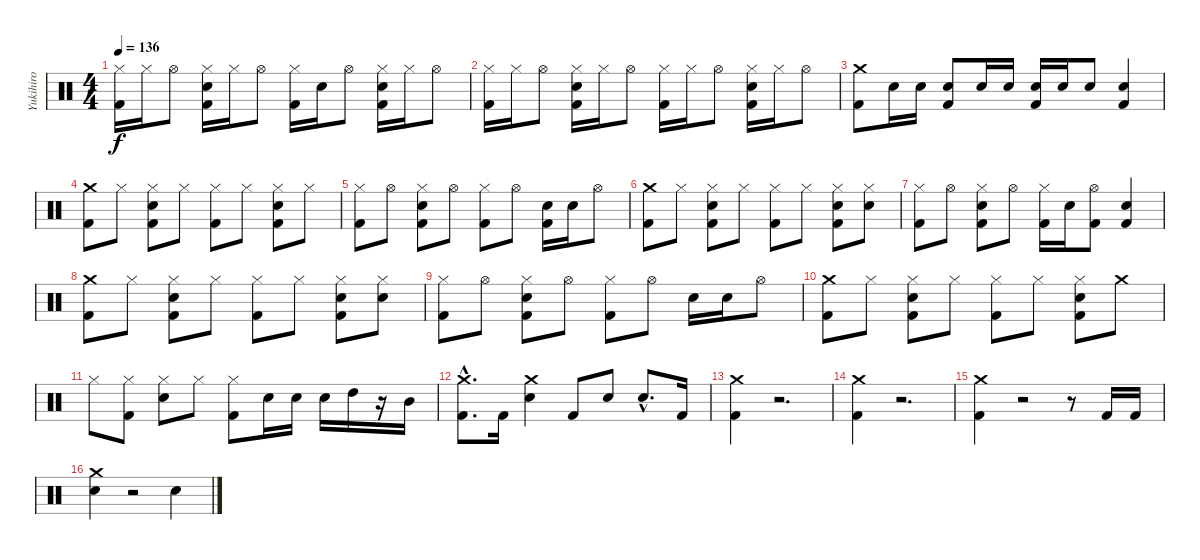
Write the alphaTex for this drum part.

\track ("Yukihiro" "Yukihiro") {instrument percussion}
\staff {score}
\articulation defaults
\ts (4 4)
\tempo 136
\clef neutral
\ks c
("Hi-Hat (closed)" "Kick (hit) 2").16{dy f} "Hi-Hat (closed)".16 "Hi-Hat (open)".8 ("Hi-Hat (closed)" "Snare (hit) 2" "Kick (hit) 2").16 "Hi-Hat (closed)".16 "Hi-Hat (open)".8 ("Hi-Hat (closed)" "Kick (hit) 2").16 "Snare (hit) 2".16 "Hi-Hat (open)".8 ("Hi-Hat (closed)" "Snare (hit) 2" "Kick (hit) 2").16 "Hi-Hat (closed)".16 "Hi-Hat (open)".8 |
("Hi-Hat (closed)" "Kick (hit) 2").16 "Hi-Hat (closed)".16 "Hi-Hat (open)".8 ("Hi-Hat (closed)" "Snare (hit) 2" "Kick (hit) 2").16 "Hi-Hat (closed)".16 "Hi-Hat (open)".8 ("Hi-Hat (closed)" "Kick (hit) 2").16 "Hi-Hat (closed)".16 "Hi-Hat (open)".8 ("Hi-Hat (closed)" "Snare (hit) 2" "Kick (hit) 2").16 "Hi-Hat (closed)".16 "Hi-Hat (open)".8 |
("Crash medium (hit)" "Kick (hit) 2").8 "Snare (hit) 2".16 "Snare (hit) 2".16 ("Snare (hit) 2" "Kick (hit) 2").8 "Snare (hit) 2".16 "Snare (hit) 2".16 ("Snare (hit) 2" "Kick (hit) 2").16 "Snare (hit) 2".16 "Snare (hit) 2".8 ("Snare (hit) 2" "Kick (hit) 2").4 |
("Crash medium (hit)" "Kick (hit) 2").8 "Hi-Hat (closed)".8 ("Hi-Hat (closed)" "Snare (hit) 2" "Kick (hit) 2").8 "Hi-Hat (closed)".8 ("Hi-Hat (closed)" "Kick (hit) 2").8 "Hi-Hat (closed)".8 ("Hi-Hat (closed)" "Snare (hit) 2" "Kick (hit) 2").8 "Hi-Hat (closed)".8 |
("Hi-Hat (closed)" "Kick (hit) 2").8 "Hi-Hat (open)".8 ("Hi-Hat (closed)" "Snare (hit) 2" "Kick (hit) 2").8 "Hi-Hat (open)".8 ("Hi-Hat (closed)" "Kick (hit) 2").8 "Hi-Hat (open)".8 ("Snare (hit) 2" "Kick (hit) 2").16 "Snare (hit) 2".16 "Hi-Hat (open)".8 |
("Crash medium (hit)" "Kick (hit) 2").8 "Hi-Hat (closed)".8 ("Hi-Hat (closed)" "Snare (hit) 2" "Kick (hit) 2").8 "Hi-Hat (closed)".8 ("Hi-Hat (closed)" "Kick (hit) 2").8 "Hi-Hat (closed)".8 ("Hi-Hat (closed)" "Snare (hit) 2" "Kick (hit) 2").8 ("Hi-Hat (closed)" "Snare (hit) 2").8 |
("Hi-Hat (closed)" "Kick (hit) 2").8 "Hi-Hat (open)".8 ("Hi-Hat (closed)" "Snare (hit) 2" "Kick (hit) 2").8 "Hi-Hat (open)".8 ("Hi-Hat (closed)" "Kick (hit) 2").16 "Snare (hit) 2".16 ("Hi-Hat (open)" "Kick (hit) 2").8 ("Snare (hit) 2" "Kick (hit) 2").4 |
("Crash medium (hit)" "Kick (hit) 2").8 "Hi-Hat (closed)".8 ("Hi-Hat (closed)" "Snare (hit) 2" "Kick (hit) 2").8 "Hi-Hat (closed)".8 ("Hi-Hat (closed)" "Kick (hit) 2").8 "Hi-Hat (closed)".8 ("Hi-Hat (closed)" "Snare (hit) 2" "Kick (hit) 2").8 ("Hi-Hat (closed)" "Snare (hit) 2").8 |
("Hi-Hat (closed)" "Kick (hit) 2").8 "Hi-Hat (open)".8 ("Hi-Hat (closed)" "Snare (hit) 2" "Kick (hit) 2").8 "Hi-Hat (open)".8 ("Hi-Hat (closed)" "Kick (hit) 2").8 "Hi-Hat (open)".8 "Snare (hit) 2".16 "Snare (hit) 2".16 "Hi-Hat (open)".8 |
("Crash medium (hit)" "Kick (hit) 2").8 "Hi-Hat (closed)".8 ("Hi-Hat (closed)" "Snare (hit) 2" "Kick (hit) 2").8 "Hi-Hat (closed)".8 ("Hi-Hat (closed)" "Kick (hit) 2").8 "Hi-Hat (closed)".8 ("Hi-Hat (closed)" "Snare (hit) 2" "Kick (hit) 2").8 "Crash medium (hit)".8 |
"Hi-Hat (closed)".8 ("Hi-Hat (closed)" "Kick (hit) 2").8 ("Hi-Hat (closed)" "Snare (hit) 2").8 "Hi-Hat (closed)".8 ("Hi-Hat (closed)" "Kick (hit) 2").8 "Snare (hit) 2".16 "Snare (hit) 2".16 "Snare (hit) 2".16 "High Tom (hit)".16 r.16 "Mid Tom (hit)".16 |
("Crash medium (hit)"{hac} "Kick (hit) 2"{hac}).8{d} "Kick (hit) 2".16 ("Crash medium (hit)" "Snare (hit) 2").4 "Kick (hit) 2".8 "Snare (hit) 2".8 "Snare (hit) 2"{hac}.8{d} "Kick (hit) 2".16 |
("Crash medium (hit)" "Kick (hit) 2").4 r.2{d} |
("Crash medium (hit)" "Kick (hit) 2").4 r.2{d} |
("Crash medium (hit)" "Kick (hit) 2").4 r.2 r.8 "Kick (hit) 2".16 "Kick (hit) 2".16 |
("Crash medium (hit)" "Snare (hit) 2").4 r.2 "Snare (hit) 2".4
